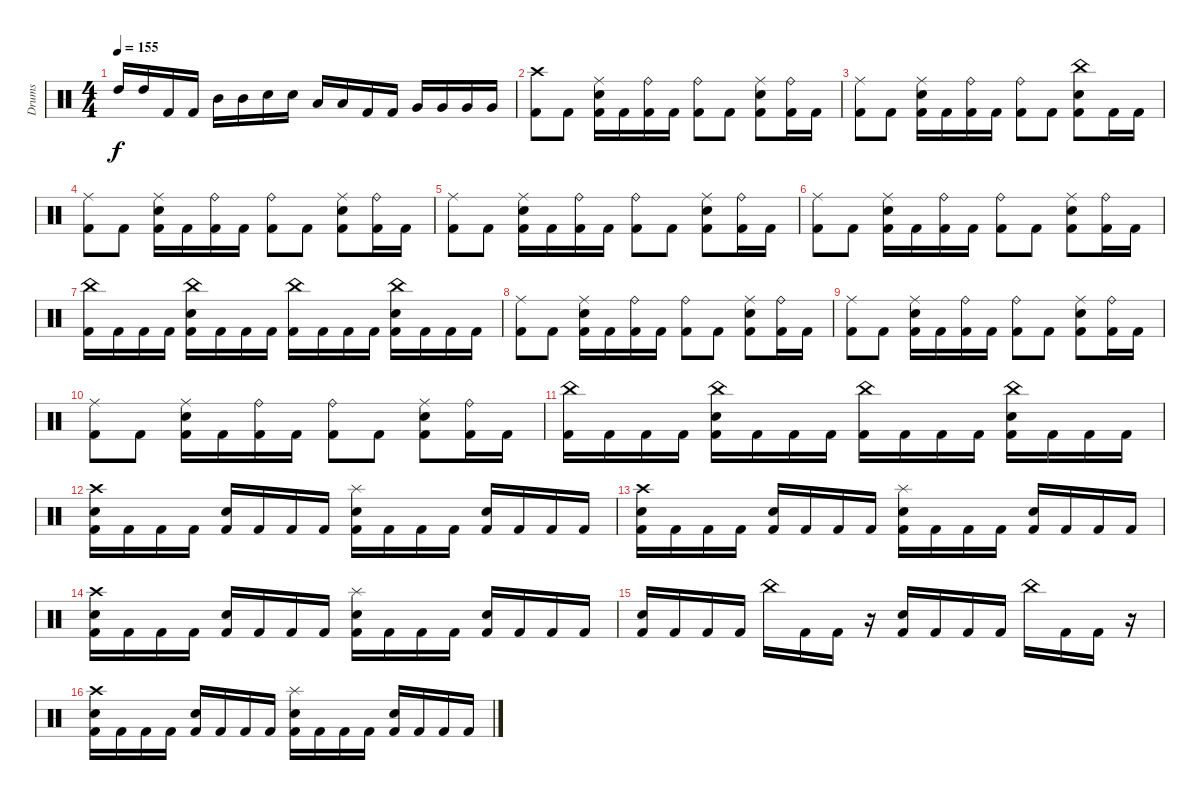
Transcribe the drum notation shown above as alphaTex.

\track ("Drums" "Drums") {instrument percussion}
\staff {score}
\articulation defaults
\ts (4 4)
\tempo 155
\clef neutral
\ks c "High Tom (hit)".16{dy f} "High Tom (hit)".16 "Kick (hit) 2".16 "Kick (hit) 2".16 "Mid Tom (hit)".16 "Mid Tom (hit)".16 "Snare (hit) 2".16 "Snare (hit) 2".16 "Low Tom (hit)".16 "Low Tom (hit)".16 "Kick (hit) 2".16 "Kick (hit) 2".16 "Very Low Tom (hit)".16 "Very Low Tom (hit)".16 "Very Low Tom (hit)".16 "Very Low Tom (hit)".16
|
("Crash high (hit)" "Kick (hit) 2").8 "Kick (hit) 2".8 ("Ride (middle)" "Snare (hit) 2" "Kick (hit) 2").16 "Kick (hit) 2".16 ("Ride (bell)" "Kick (hit) 2").16 "Kick (hit) 2".16 ("Ride (bell)" "Kick (hit) 2").8 "Kick (hit) 2".8 ("Ride (middle)" "Snare (hit) 2" "Kick (hit) 2").8 ("Ride (bell)" "Kick (hit) 2").16 "Kick (hit) 2".16 |
("Ride (middle)" "Kick (hit) 2").8 "Kick (hit) 2".8 ("Ride (middle)" "Snare (hit) 2" "Kick (hit) 2").16 "Kick (hit) 2".16 ("Ride (bell)" "Kick (hit) 2").16 "Kick (hit) 2".16 ("Ride (bell)" "Kick (hit) 2").8 "Kick (hit) 2".8 ("China (hit)" "Snare (hit) 2" "Kick (hit) 2").8 "Kick (hit) 2".16 "Kick (hit) 2".16 |
("Ride (middle)" "Kick (hit) 2").8 "Kick (hit) 2".8 ("Ride (middle)" "Snare (hit) 2" "Kick (hit) 2").16 "Kick (hit) 2".16 ("Ride (bell)" "Kick (hit) 2").16 "Kick (hit) 2".16 ("Ride (bell)" "Kick (hit) 2").8 "Kick (hit) 2".8 ("Ride (middle)" "Snare (hit) 2" "Kick (hit) 2").8 ("Ride (bell)" "Kick (hit) 2").16 "Kick (hit) 2".16 |
("Ride (middle)" "Kick (hit) 2").8 "Kick (hit) 2".8 ("Ride (middle)" "Snare (hit) 2" "Kick (hit) 2").16 "Kick (hit) 2".16 ("Ride (bell)" "Kick (hit) 2").16 "Kick (hit) 2".16 ("Ride (bell)" "Kick (hit) 2").8 "Kick (hit) 2".8 ("Ride (middle)" "Snare (hit) 2" "Kick (hit) 2").8 ("Ride (bell)" "Kick (hit) 2").16 "Kick (hit) 2".16 |
("Ride (middle)" "Kick (hit) 2").8 "Kick (hit) 2".8 ("Ride (middle)" "Snare (hit) 2" "Kick (hit) 2").16 "Kick (hit) 2".16 ("Ride (bell)" "Kick (hit) 2").16 "Kick (hit) 2".16 ("Ride (bell)" "Kick (hit) 2").8 "Kick (hit) 2".8 ("Ride (middle)" "Snare (hit) 2" "Kick (hit) 2").8 ("Ride (bell)" "Kick (hit) 2").16 "Kick (hit) 2".16 |
("China (hit)" "Kick (hit) 2").16 "Kick (hit) 2".16 "Kick (hit) 2".16 "Kick (hit) 2".16 ("China (hit)" "Snare (hit) 2" "Kick (hit) 2").16 "Kick (hit) 2".16 "Kick (hit) 2".16 "Kick (hit) 2".16 ("China (hit)" "Kick (hit) 2").16 "Kick (hit) 2".16 "Kick (hit) 2".16 "Kick (hit) 2".16 ("China (hit)" "Snare (hit) 2" "Kick (hit) 2").16 "Kick (hit) 2".16 "Kick (hit) 2".16 "Kick (hit) 2".16 |
("Ride (middle)" "Kick (hit) 2").8 "Kick (hit) 2".8 ("Ride (middle)" "Snare (hit) 2" "Kick (hit) 2").16 "Kick (hit) 2".16 ("Ride (bell)" "Kick (hit) 2").16 "Kick (hit) 2".16 ("Ride (bell)" "Kick (hit) 2").8 "Kick (hit) 2".8 ("Ride (middle)" "Snare (hit) 2" "Kick (hit) 2").8 ("Ride (bell)" "Kick (hit) 2").16 "Kick (hit) 2".16 |
("Ride (middle)" "Kick (hit) 2").8 "Kick (hit) 2".8 ("Ride (middle)" "Snare (hit) 2" "Kick (hit) 2").16 "Kick (hit) 2".16 ("Ride (bell)" "Kick (hit) 2").16 "Kick (hit) 2".16 ("Ride (bell)" "Kick (hit) 2").8 "Kick (hit) 2".8 ("Ride (middle)" "Snare (hit) 2" "Kick (hit) 2").8 ("Ride (bell)" "Kick (hit) 2").16 "Kick (hit) 2".16 |
("Ride (middle)" "Kick (hit) 2").8 "Kick (hit) 2".8 ("Ride (middle)" "Snare (hit) 2" "Kick (hit) 2").16 "Kick (hit) 2".16 ("Ride (bell)" "Kick (hit) 2").16 "Kick (hit) 2".16 ("Ride (bell)" "Kick (hit) 2").8 "Kick (hit) 2".8 ("Ride (middle)" "Snare (hit) 2" "Kick (hit) 2").8 ("Ride (bell)" "Kick (hit) 2").16 "Kick (hit) 2".16 |
("China (hit)" "Kick (hit) 2").16 "Kick (hit) 2".16 "Kick (hit) 2".16 "Kick (hit) 2".16 ("China (hit)" "Snare (hit) 2" "Kick (hit) 2").16 "Kick (hit) 2".16 "Kick (hit) 2".16 "Kick (hit) 2".16 ("China (hit)" "Kick (hit) 2").16 "Kick (hit) 2".16 "Kick (hit) 2".16 "Kick (hit) 2".16 ("China (hit)" "Snare (hit) 2" "Kick (hit) 2").16 "Kick (hit) 2".16 "Kick (hit) 2".16 "Kick (hit) 2".16 |
("Crash high (hit)" "Snare (hit) 2" "Kick (hit) 2").16 "Kick (hit) 2".16 "Kick (hit) 2".16 "Kick (hit) 2".16 ("Snare (hit) 2" "Kick (hit) 2").16 "Kick (hit) 2".16 "Kick (hit) 2".16 "Kick (hit) 2".16 ("Splash (hit)" "Snare (hit) 2" "Kick (hit) 2").16 "Kick (hit) 2".16 "Kick (hit) 2".16 "Kick (hit) 2".16 ("Snare (hit) 2" "Kick (hit) 2").16 "Kick (hit) 2".16 "Kick (hit) 2".16 "Kick (hit) 2".16 |
("Crash high (hit)" "Snare (hit) 2" "Kick (hit) 2").16 "Kick (hit) 2".16 "Kick (hit) 2".16 "Kick (hit) 2".16 ("Snare (hit) 2" "Kick (hit) 2").16 "Kick (hit) 2".16 "Kick (hit) 2".16 "Kick (hit) 2".16 ("Splash (hit)" "Snare (hit) 2" "Kick (hit) 2").16 "Kick (hit) 2".16 "Kick (hit) 2".16 "Kick (hit) 2".16 ("Snare (hit) 2" "Kick (hit) 2").16 "Kick (hit) 2".16 "Kick (hit) 2".16 "Kick (hit) 2".16 |
("Crash high (hit)" "Snare (hit) 2" "Kick (hit) 2").16 "Kick (hit) 2".16 "Kick (hit) 2".16 "Kick (hit) 2".16 ("Snare (hit) 2" "Kick (hit) 2").16 "Kick (hit) 2".16 "Kick (hit) 2".16 "Kick (hit) 2".16 ("Splash (hit)" "Snare (hit) 2" "Kick (hit) 2").16 "Kick (hit) 2".16 "Kick (hit) 2".16 "Kick (hit) 2".16 ("Snare (hit) 2" "Kick (hit) 2").16 "Kick (hit) 2".16 "Kick (hit) 2".16 "Kick (hit) 2".16 |
("Snare (hit) 2" "Kick (hit) 2").16 "Kick (hit) 2".16 "Kick (hit) 2".16 "Kick (hit) 2".16 "China (hit)".16 "Kick (hit) 2".16 "Kick (hit) 2".16 r.16 ("Snare (hit) 2" "Kick (hit) 2").16 "Kick (hit) 2".16 "Kick (hit) 2".16 "Kick (hit) 2".16 "China (hit)".16 "Kick (hit) 2".16 "Kick (hit) 2".16 r.16 |
("Crash high (hit)" "Snare (hit) 2" "Kick (hit) 2").16 "Kick (hit) 2".16 "Kick (hit) 2".16 "Kick (hit) 2".16 ("Snare (hit) 2" "Kick (hit) 2").16 "Kick (hit) 2".16 "Kick (hit) 2".16 "Kick (hit) 2".16 ("Splash (hit)" "Snare (hit) 2" "Kick (hit) 2").16 "Kick (hit) 2".16 "Kick (hit) 2".16 "Kick (hit) 2".16 ("Snare (hit) 2" "Kick (hit) 2").16 "Kick (hit) 2".16 "Kick (hit) 2".16 "Kick (hit) 2".16
